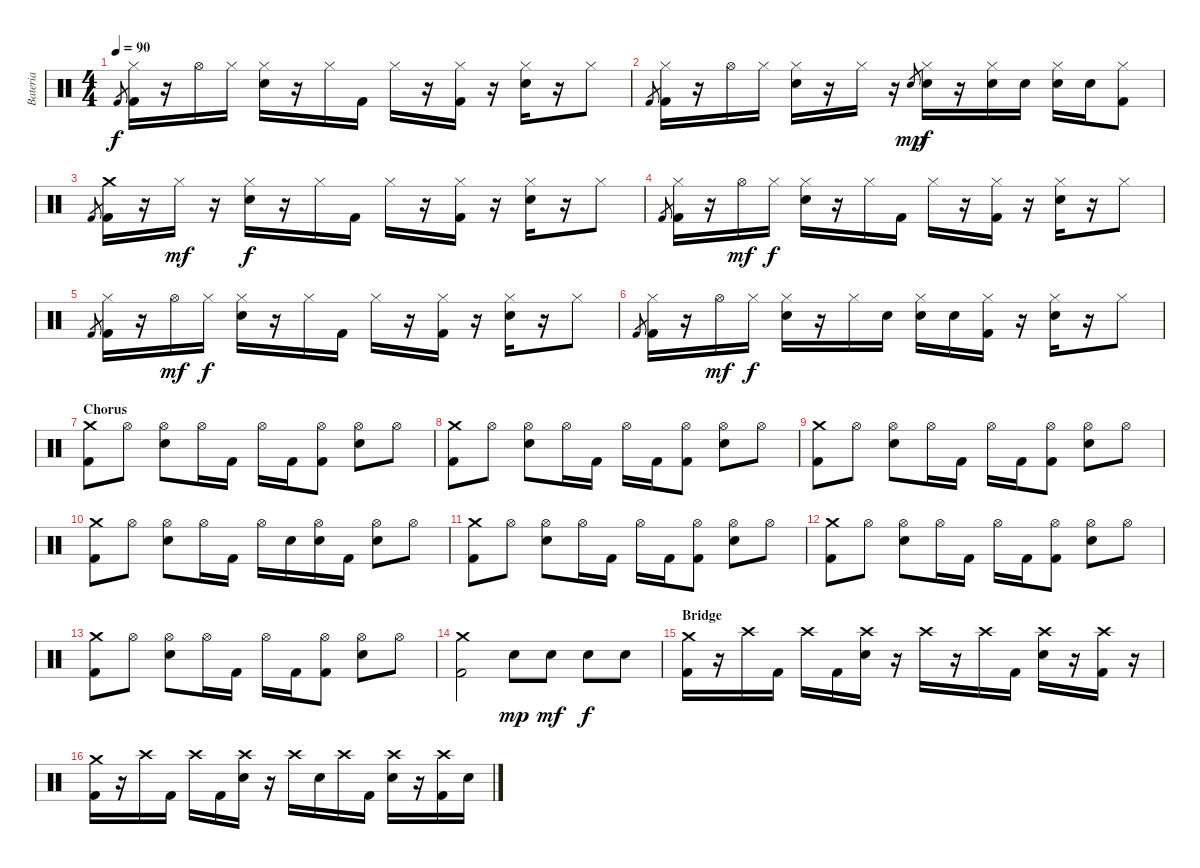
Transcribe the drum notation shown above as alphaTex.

\track ("Bateria" "Bateria") {instrument percussion}
\staff {score}
\articulation defaults
\ts (4 4)
\tempo 90
\clef neutral
\ks c "Kick (hit) 2".8{gr dy f}
("Hi-Hat (closed)" "Kick (hit) 2").16 r.16 "Hi-Hat (open)".16 "Hi-Hat (closed)".16 ("Hi-Hat (closed)" "Electric Snare (hit)").16 r.16 "Hi-Hat (closed)".16 "Kick (hit) 2".16 "Hi-Hat (closed)".16 r.16 ("Hi-Hat (closed)" "Kick (hit) 2").16 r.16 ("Hi-Hat (closed)" "Electric Snare (hit)").16 r.16 "Hi-Hat (closed)".8 |
"Kick (hit) 2".8{gr} ("Hi-Hat (closed)" "Kick (hit) 2").16 r.16 "Hi-Hat (open)".16 "Hi-Hat (closed)".16 ("Hi-Hat (closed)" "Electric Snare (hit)").16 r.16 "Hi-Hat (closed)".16 r.16 "Electric Snare (hit)".8{gr dy mp} ("Hi-Hat (closed)" "Electric Snare (hit)").16{dy f} r.16 ("Hi-Hat (closed)" "Electric Snare (hit)").16 "Electric Snare (hit)".16 ("Hi-Hat (closed)" "Electric Snare (hit)").16 "Electric Snare (hit)".16 ("Hi-Hat (closed)" "Kick (hit) 2").8 |
"Kick (hit) 2".8{gr} ("Crash medium (hit)" "Kick (hit) 2").16 r.16 "Hi-Hat (closed)".16{dy mf} r.16 ("Hi-Hat (closed)" "Electric Snare (hit)").16{dy f} r.16 "Hi-Hat (closed)".16 "Kick (hit) 2".16 "Hi-Hat (closed)".16 r.16 ("Hi-Hat (closed)" "Kick (hit) 2").16 r.16 ("Hi-Hat (closed)" "Electric Snare (hit)").16 r.16 "Hi-Hat (closed)".8 |
"Kick (hit) 2".8{gr} ("Hi-Hat (closed)" "Kick (hit) 2").16 r.16 "Hi-Hat (open)".16{dy mf} "Hi-Hat (closed)".16{dy f} ("Hi-Hat (closed)" "Electric Snare (hit)").16 r.16 "Hi-Hat (closed)".16 "Kick (hit) 2".16 "Hi-Hat (closed)".16 r.16 ("Hi-Hat (closed)" "Kick (hit) 2").16 r.16 ("Hi-Hat (closed)" "Electric Snare (hit)").16 r.16 "Hi-Hat (closed)".8 |
"Kick (hit) 2".8{gr} ("Hi-Hat (closed)" "Kick (hit) 2").16 r.16 "Hi-Hat (open)".16{dy mf} "Hi-Hat (closed)".16{dy f} ("Hi-Hat (closed)" "Electric Snare (hit)").16 r.16 "Hi-Hat (closed)".16 "Kick (hit) 2".16 "Hi-Hat (closed)".16 r.16 ("Hi-Hat (closed)" "Kick (hit) 2").16 r.16 ("Hi-Hat (closed)" "Electric Snare (hit)").16 r.16 "Hi-Hat (closed)".8 |
"Kick (hit) 2".8{gr} ("Hi-Hat (closed)" "Kick (hit) 2").16 r.16 "Hi-Hat (open)".16{dy mf} "Hi-Hat (closed)".16{dy f} ("Hi-Hat (closed)" "Electric Snare (hit)").16 r.16 "Hi-Hat (closed)".16 "Electric Snare (hit)".16 ("Hi-Hat (closed)" "Electric Snare (hit)").16 "Electric Snare (hit)".16 ("Hi-Hat (closed)" "Kick (hit) 2").16 r.16 ("Hi-Hat (closed)" "Electric Snare (hit)").16 r.16 "Hi-Hat (closed)".8 |
\section ("" "Chorus")
("Crash medium (hit)" "Kick (hit) 2").8 "Hi-Hat (open)".8 ("Hi-Hat (open)" "Electric Snare (hit)").8 "Hi-Hat (open)".16 "Kick (hit) 2".16 "Hi-Hat (open)".16 "Kick (hit) 2".16 ("Hi-Hat (open)" "Kick (hit) 2").8 ("Hi-Hat (open)" "Electric Snare (hit)").8 "Hi-Hat (open)".8 |
("Crash medium (hit)" "Kick (hit) 2").8 "Hi-Hat (open)".8 ("Hi-Hat (open)" "Electric Snare (hit)").8 "Hi-Hat (open)".16 "Kick (hit) 2".16 "Hi-Hat (open)".16 "Kick (hit) 2".16 ("Hi-Hat (open)" "Kick (hit) 2").8 ("Hi-Hat (open)" "Electric Snare (hit)").8 "Hi-Hat (open)".8 |
("Crash medium (hit)" "Kick (hit) 2").8 "Hi-Hat (open)".8 ("Hi-Hat (open)" "Electric Snare (hit)").8 "Hi-Hat (open)".16 "Kick (hit) 2".16 "Hi-Hat (open)".16 "Kick (hit) 2".16 ("Hi-Hat (open)" "Kick (hit) 2").8 ("Hi-Hat (open)" "Electric Snare (hit)").8 "Hi-Hat (open)".8 |
("Crash medium (hit)" "Kick (hit) 2").8 "Hi-Hat (open)".8 ("Hi-Hat (open)" "Electric Snare (hit)").8 "Hi-Hat (open)".16 "Kick (hit) 2".16 "Hi-Hat (open)".16 "Electric Snare (hit)".16 ("Hi-Hat (open)" "Electric Snare (hit)").16 "Kick (hit) 2".16 ("Hi-Hat (open)" "Electric Snare (hit)").8 "Hi-Hat (open)".8 |
("Crash medium (hit)" "Kick (hit) 2").8 "Hi-Hat (open)".8 ("Hi-Hat (open)" "Electric Snare (hit)").8 "Hi-Hat (open)".16 "Kick (hit) 2".16 "Hi-Hat (open)".16 "Kick (hit) 2".16 ("Hi-Hat (open)" "Kick (hit) 2").8 ("Hi-Hat (open)" "Electric Snare (hit)").8 "Hi-Hat (open)".8 |
("Crash medium (hit)" "Kick (hit) 2").8 "Hi-Hat (open)".8 ("Hi-Hat (open)" "Electric Snare (hit)").8 "Hi-Hat (open)".16 "Kick (hit) 2".16 "Hi-Hat (open)".16 "Kick (hit) 2".16 ("Hi-Hat (open)" "Kick (hit) 2").8 ("Hi-Hat (open)" "Electric Snare (hit)").8 "Hi-Hat (open)".8 |
("Crash medium (hit)" "Kick (hit) 2").8 "Hi-Hat (open)".8 ("Hi-Hat (open)" "Electric Snare (hit)").8 "Hi-Hat (open)".16 "Kick (hit) 2".16 "Hi-Hat (open)".16 "Kick (hit) 2".16 ("Hi-Hat (open)" "Kick (hit) 2").8 ("Hi-Hat (open)" "Electric Snare (hit)").8 "Hi-Hat (open)".8 |
("Crash medium (hit)" "Kick (hit) 2").2 "Electric Snare (hit)".8{dy mp} "Electric Snare (hit)".8{dy mf} "Electric Snare (hit)".8{dy f} "Electric Snare (hit)".8 |
\section ("" "Bridge")
("Crash medium (hit)" "Kick (hit) 2").16 r.16 "Crash high (hit)".16 "Kick (hit) 2".16 "Crash high (hit)".16 "Kick (hit) 2".16 ("Crash high (hit)" "Electric Snare (hit)").16 r.16 "Crash high (hit)".16 r.16 "Crash high (hit)".16 "Kick (hit) 2".16 ("Crash high (hit)" "Electric Snare (hit)").16 r.16 ("Crash high (hit)" "Kick (hit) 2").16 r.16 |
("Crash medium (hit)" "Kick (hit) 2").16 r.16 "Crash high (hit)".16 "Kick (hit) 2".16 "Crash high (hit)".16 "Kick (hit) 2".16 ("Crash high (hit)" "Electric Snare (hit)").16 r.16 "Crash high (hit)".16 "Electric Snare (hit)".16 "Crash high (hit)".16 "Kick (hit) 2".16 ("Crash high (hit)" "Electric Snare (hit)").16 r.16 ("Crash high (hit)" "Kick (hit) 2").16 "Electric Snare (hit)".16
